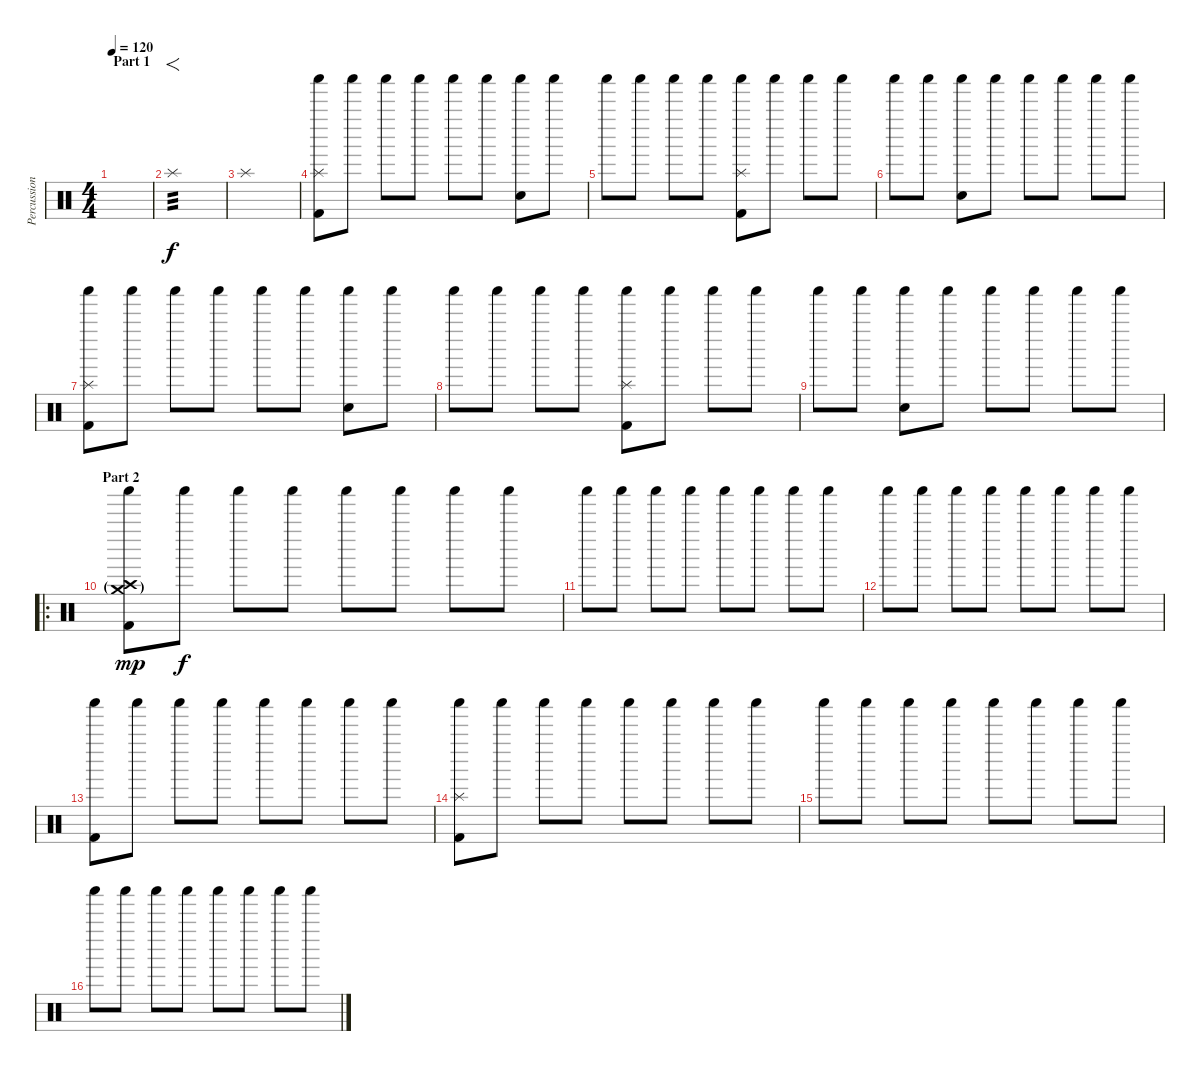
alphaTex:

\track ("Percussion" "Percussion") {instrument percussion}
\staff {score}
\articulation defaults
\ts (4 4)
\section ("" "Part 1")
\tempo 120
\clef neutral
\ks c
|
"Splash (hit)".1{f tp 3} |
"Splash (hit)".1 |
("Splash (hit)" "Shaker (hit)" "Kick (hit) 2").8 "Shaker (hit)".8 "Shaker (hit)".8 "Shaker (hit)".8 "Shaker (hit)".8 "Shaker (hit)".8 ("Shaker (hit)" "Snare (hit) 2").8 "Shaker (hit)".8 |
"Shaker (hit)".8 "Shaker (hit)".8 "Shaker (hit)".8 "Shaker (hit)".8 ("Splash (hit)" "Shaker (hit)" "Kick (hit) 2").8 "Shaker (hit)".8 "Shaker (hit)".8 "Shaker (hit)".8 |
"Shaker (hit)".8 "Shaker (hit)".8 ("Shaker (hit)" "Snare (hit) 2").8 "Shaker (hit)".8 "Shaker (hit)".8 "Shaker (hit)".8 "Shaker (hit)".8 "Shaker (hit)".8 |
("Splash (hit)" "Shaker (hit)" "Kick (hit) 2").8 "Shaker (hit)".8 "Shaker (hit)".8 "Shaker (hit)".8 "Shaker (hit)".8 "Shaker (hit)".8 ("Shaker (hit)" "Snare (hit) 2").8 "Shaker (hit)".8 |
"Shaker (hit)".8 "Shaker (hit)".8 "Shaker (hit)".8 "Shaker (hit)".8 ("Splash (hit)" "Shaker (hit)" "Kick (hit) 2").8 "Shaker (hit)".8 "Shaker (hit)".8 "Shaker (hit)".8 |
"Shaker (hit)".8 "Shaker (hit)".8 ("Shaker (hit)" "Snare (hit) 2").8 "Shaker (hit)".8 "Shaker (hit)".8 "Shaker (hit)".8 "Shaker (hit)".8 "Shaker (hit)".8 |
\ro
\section ("" "Part 2")
("Crash high (hit)"{g} "Crash medium (hit)"{g} "Shaker (hit)" "Kick (hit) 2").8{dy mp} "Shaker (hit)".8{dy f} "Shaker (hit)".8 "Shaker (hit)".8 "Shaker (hit)".8 "Shaker (hit)".8 "Shaker (hit)".8 "Shaker (hit)".8 |
"Shaker (hit)".8 "Shaker (hit)".8 "Shaker (hit)".8 "Shaker (hit)".8 "Shaker (hit)".8 "Shaker (hit)".8 "Shaker (hit)".8 "Shaker (hit)".8 |
"Shaker (hit)".8 "Shaker (hit)".8 "Shaker (hit)".8 "Shaker (hit)".8 "Shaker (hit)".8 "Shaker (hit)".8 "Shaker (hit)".8 "Shaker (hit)".8 |
("Shaker (hit)" "Kick (hit) 2").8 "Shaker (hit)".8 "Shaker (hit)".8 "Shaker (hit)".8 "Shaker (hit)".8 "Shaker (hit)".8 "Shaker (hit)".8 "Shaker (hit)".8 |
("Splash (hit)" "Shaker (hit)" "Kick (hit) 2").8 "Shaker (hit)".8 "Shaker (hit)".8 "Shaker (hit)".8 "Shaker (hit)".8 "Shaker (hit)".8 "Shaker (hit)".8 "Shaker (hit)".8 |
"Shaker (hit)".8 "Shaker (hit)".8 "Shaker (hit)".8 "Shaker (hit)".8 "Shaker (hit)".8 "Shaker (hit)".8 "Shaker (hit)".8 "Shaker (hit)".8 |
"Shaker (hit)".8 "Shaker (hit)".8 "Shaker (hit)".8 "Shaker (hit)".8 "Shaker (hit)".8 "Shaker (hit)".8 "Shaker (hit)".8 "Shaker (hit)".8
